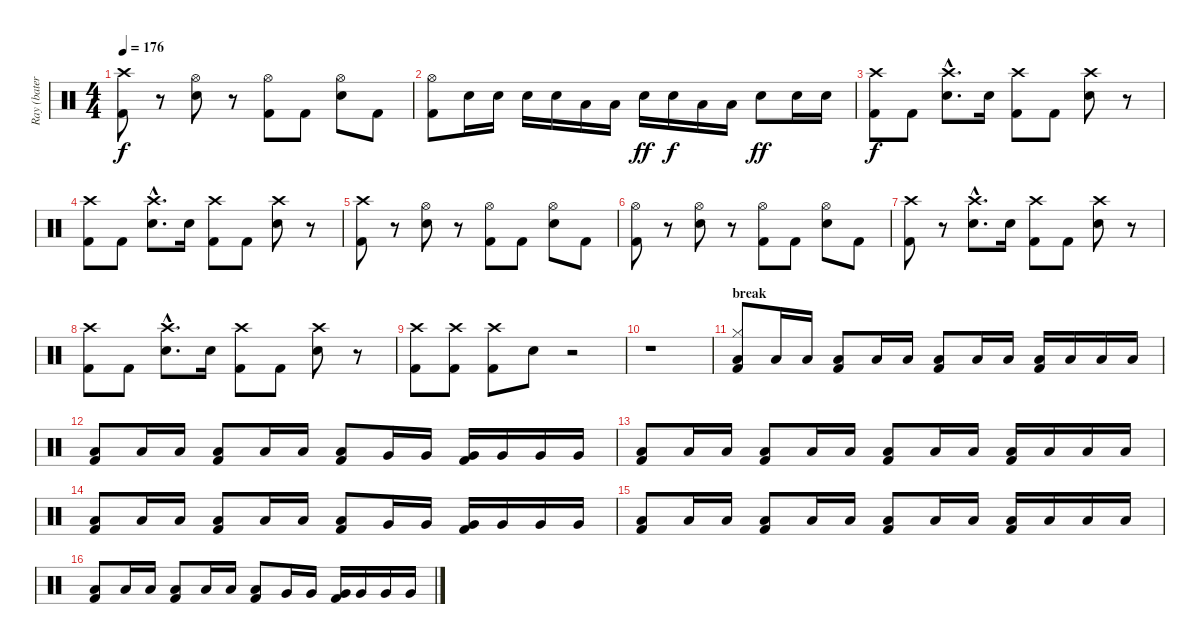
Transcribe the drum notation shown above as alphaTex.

\track ("Ray (batería)" "Ray (bater") {instrument percussion}
\staff {score}
\articulation defaults
\ts (4 4)
\tempo 176
\clef neutral
\ks c
("Crash high (hit)" "Kick (hit) 2").8{dy f} r.8 ("Hi-Hat (open)" "Snare (hit) 2").8 r.8 ("Hi-Hat (open)" "Kick (hit) 2").8 "Kick (hit) 2".8 ("Hi-Hat (open)" "Snare (hit) 2").8 "Kick (hit) 2".8 |
("Hi-Hat (open)" "Kick (hit) 2").8 "Snare (hit) 2".16 "Snare (hit) 2".16 "Snare (hit) 2".16 "Snare (hit) 2".16 "Low Tom (hit)".16 "Low Tom (hit)".16 "Snare (hit) 2".16{dy ff} "Snare (hit) 2".16{dy f} "Low Tom (hit)".16 "Low Tom (hit)".16 "Snare (hit) 2".8{dy ff} "Snare (hit) 2".16 "Snare (hit) 2".16 |
("Crash high (hit)" "Kick (hit) 2").8{dy f} "Kick (hit) 2".8 ("Crash high (hit)"{hac} "Snare (hit) 2"{hac}).8{d} "Snare (hit) 2".16 ("Crash high (hit)" "Kick (hit) 2").8 "Kick (hit) 2".8 ("Crash high (hit)" "Snare (hit) 2").8 r.8 |
("Crash high (hit)" "Kick (hit) 2").8 "Kick (hit) 2".8 ("Crash high (hit)"{hac} "Snare (hit) 2"{hac}).8{d} "Snare (hit) 2".16 ("Crash high (hit)" "Kick (hit) 2").8 "Kick (hit) 2".8 ("Crash high (hit)" "Snare (hit) 2").8 r.8 |
("Crash high (hit)" "Kick (hit) 2").8 r.8 ("Hi-Hat (open)" "Snare (hit) 2").8 r.8 ("Hi-Hat (open)" "Kick (hit) 2").8 "Kick (hit) 2".8 ("Hi-Hat (open)" "Snare (hit) 2").8 "Kick (hit) 2".8 |
("Hi-Hat (open)" "Kick (hit) 2").8 r.8 ("Hi-Hat (open)" "Snare (hit) 2").8 r.8 ("Hi-Hat (open)" "Kick (hit) 2").8 "Kick (hit) 2".8 ("Hi-Hat (open)" "Snare (hit) 2").8 "Kick (hit) 2".8 |
("Crash high (hit)" "Kick (hit) 2").8 r.8 ("Crash high (hit)"{hac} "Snare (hit) 2"{hac}).8{d} "Snare (hit) 2".16 ("Crash high (hit)" "Kick (hit) 2").8 "Kick (hit) 2".8 ("Crash high (hit)" "Snare (hit) 2").8 r.8 |
("Crash high (hit)" "Kick (hit) 2").8 "Kick (hit) 2".8 ("Crash high (hit)"{hac} "Snare (hit) 2"{hac}).8{d} "Snare (hit) 2".16 ("Crash high (hit)" "Kick (hit) 2").8 "Kick (hit) 2".8 ("Crash high (hit)" "Snare (hit) 2").8 r.8 |
("Crash high (hit)" "Kick (hit) 2").8 ("Crash high (hit)" "Kick (hit) 2").8 ("Crash high (hit)" "Kick (hit) 2").8 "Snare (hit) 2".8 r.2 |
r.1 |
\section ("" "break")
("Hi-Hat (closed)" "Low Floor Tom (hit)" "Kick (hit) 2").8{volume 12} "Low Floor Tom (hit)".16 "Low Floor Tom (hit)".16 ("Low Floor Tom (hit)" "Kick (hit) 2").8 "Low Floor Tom (hit)".16 "Low Floor Tom (hit)".16 ("Low Floor Tom (hit)" "Kick (hit) 2").8 "Low Floor Tom (hit)".16 "Low Floor Tom (hit)".16 ("Low Floor Tom (hit)" "Kick (hit) 2").16 "Low Floor Tom (hit)".16 "Low Floor Tom (hit)".16 "Low Floor Tom (hit)".16 |
("Low Floor Tom (hit)" "Kick (hit) 2").8 "Low Floor Tom (hit)".16 "Low Floor Tom (hit)".16 ("Low Floor Tom (hit)" "Kick (hit) 2").8 "Low Floor Tom (hit)".16 "Low Floor Tom (hit)".16 ("Low Floor Tom (hit)" "Kick (hit) 2").8 "Very Low Tom (hit)".16 "Very Low Tom (hit)".16 ("Very Low Tom (hit)" "Kick (hit) 2").16 "Very Low Tom (hit)".16 "Very Low Tom (hit)".16 "Very Low Tom (hit)".16 |
("Low Floor Tom (hit)" "Kick (hit) 2").8 "Low Floor Tom (hit)".16 "Low Floor Tom (hit)".16 ("Low Floor Tom (hit)" "Kick (hit) 2").8 "Low Floor Tom (hit)".16 "Low Floor Tom (hit)".16 ("Low Floor Tom (hit)" "Kick (hit) 2").8 "Low Floor Tom (hit)".16 "Low Floor Tom (hit)".16 ("Low Floor Tom (hit)" "Kick (hit) 2").16 "Low Floor Tom (hit)".16 "Low Floor Tom (hit)".16 "Low Floor Tom (hit)".16 |
("Low Floor Tom (hit)" "Kick (hit) 2").8 "Low Floor Tom (hit)".16 "Low Floor Tom (hit)".16 ("Low Floor Tom (hit)" "Kick (hit) 2").8 "Low Floor Tom (hit)".16 "Low Floor Tom (hit)".16 ("Low Floor Tom (hit)" "Kick (hit) 2").8 "Very Low Tom (hit)".16 "Very Low Tom (hit)".16 ("Very Low Tom (hit)" "Kick (hit) 2").16 "Very Low Tom (hit)".16 "Very Low Tom (hit)".16 "Very Low Tom (hit)".16 |
("Low Floor Tom (hit)" "Kick (hit) 2").8 "Low Floor Tom (hit)".16 "Low Floor Tom (hit)".16 ("Low Floor Tom (hit)" "Kick (hit) 2").8 "Low Floor Tom (hit)".16 "Low Floor Tom (hit)".16 ("Low Floor Tom (hit)" "Kick (hit) 2").8 "Low Floor Tom (hit)".16 "Low Floor Tom (hit)".16 ("Low Floor Tom (hit)" "Kick (hit) 2").16 "Low Floor Tom (hit)".16 "Low Floor Tom (hit)".16 "Low Floor Tom (hit)".16 |
("Low Floor Tom (hit)" "Kick (hit) 2").8 "Low Floor Tom (hit)".16 "Low Floor Tom (hit)".16 ("Low Floor Tom (hit)" "Kick (hit) 2").8 "Low Floor Tom (hit)".16 "Low Floor Tom (hit)".16 ("Low Floor Tom (hit)" "Kick (hit) 2").8 "Very Low Tom (hit)".16 "Very Low Tom (hit)".16 ("Very Low Tom (hit)" "Kick (hit) 2").16 "Very Low Tom (hit)".16 "Very Low Tom (hit)".16 "Very Low Tom (hit)".16
